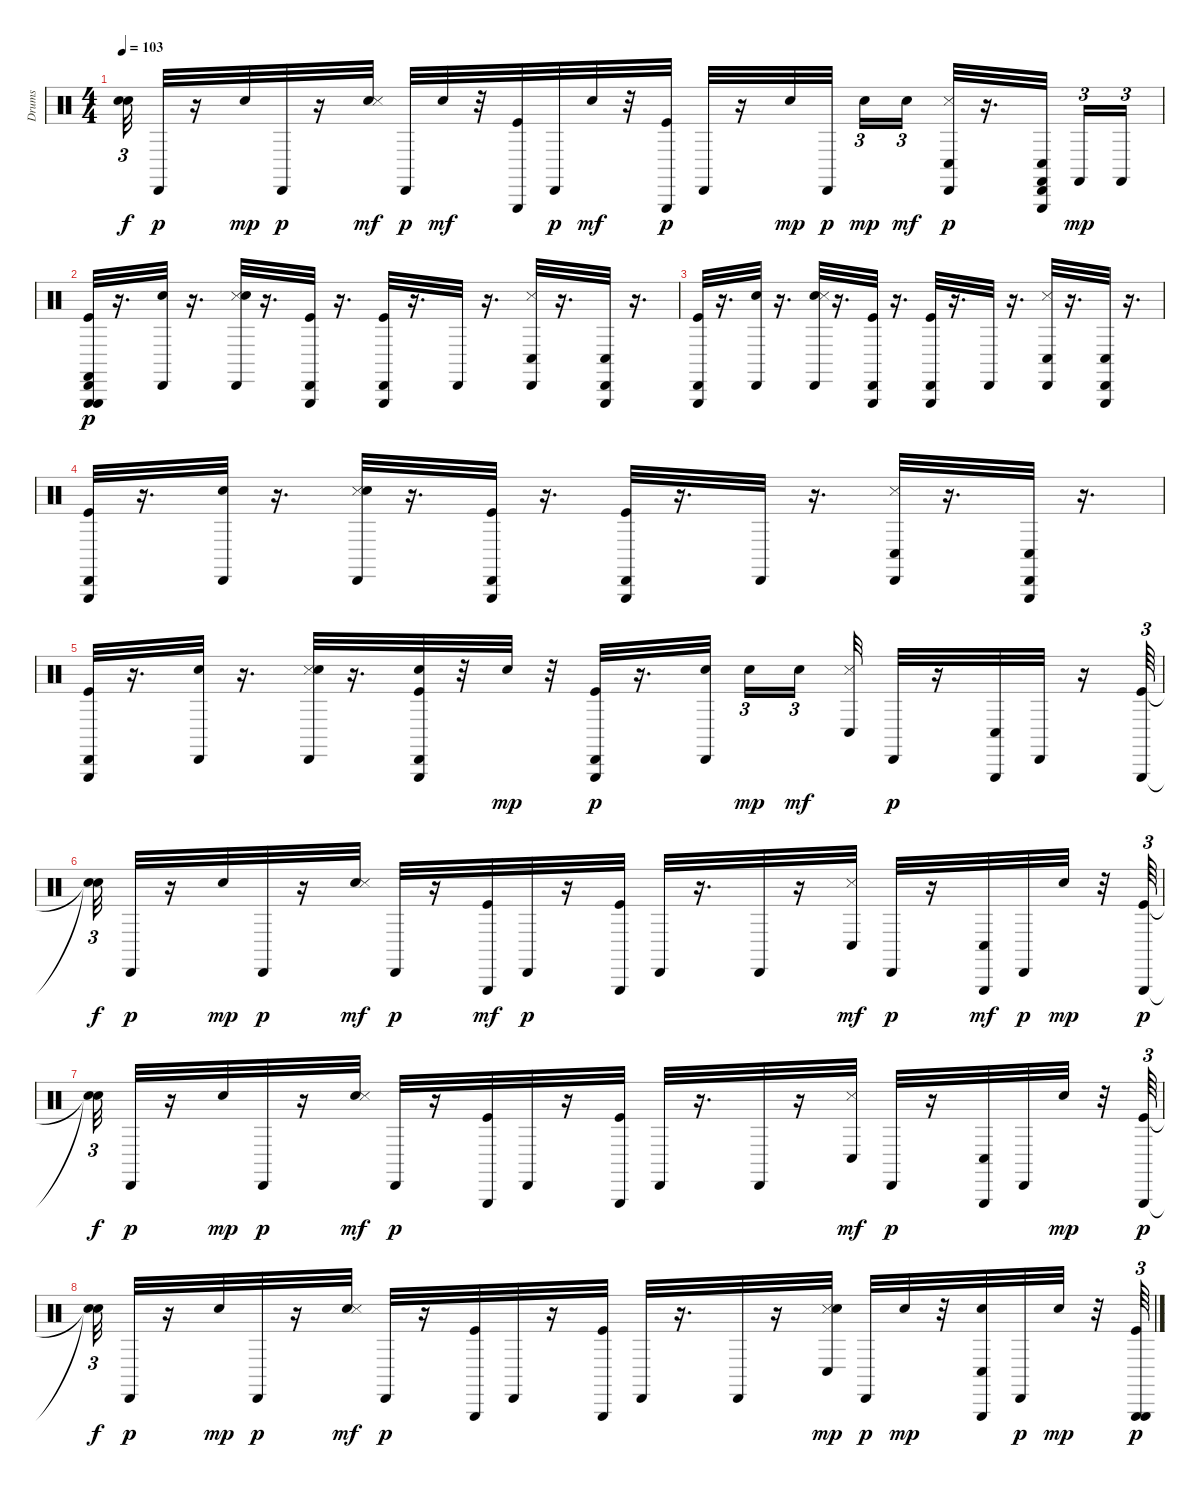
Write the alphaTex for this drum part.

\track ("Drums" "Drums") {instrument percussion}
\staff {score}
\articulation defaults
\ts (4 4)
\tempo 103
\clef neutral
\ks c
("Snare (hit)"{t} "Snare (hit)"{t}).32{tu (3 2) dy f} "Cabasa (hit)".32{dy p} r.16 "Snare (hit) 2".32{dy mp} "Cabasa (hit)".32{dy p} r.16 ("Snare (hit) 2" "Snare (side stick) 3").32{dy mf} "Cabasa (hit)".32{dy p} "Snare (hit) 2".32{dy mf} r.32 ("Triangle (hit)" "Kick (hit)").32 "Cabasa (hit)".32{dy p} "Snare (hit) 2".32{dy mf} r.32 ("Kick (hit)" "Triangle (hit)").32{dy p} "Cabasa (hit)".32 r.16 "Snare (hit) 2".32{dy mp} "Cabasa (hit)".32{dy p} "Snare (hit) 2".16{tu (3 2) dy mp} "Snare (hit) 2".16{tu (3 2) dy mf} ("Snare (side stick) 3" "Conga low (hit)" "Cabasa (hit)").32{dy p} r.16{d} ("Triangle (hit)" "Conga low (hit)" "Castanets (hit)" "Cabasa (hit)").32 "Castanets (hit)".16{tu (3 2) dy mp} "Castanets (hit)".16{tu (3 2)} |
("Triangle (hit)" "Castanets (hit)" "Triangle (hit)" "Kick (hit)" "Cabasa (hit)").32{dy p} r.16{d} ("Snare (hit) 2" "Cabasa (hit)").32 r.16{d} ("Snare (side stick) 3" "Snare (hit) 2" "Cabasa (hit)").32 r.16{d} ("Kick (hit)" "Triangle (hit)" "Cabasa (hit)").32 r.16{d} ("Triangle (hit)" "Kick (hit)" "Cabasa (hit)").32 r.16{d} "Cabasa (hit)".32 r.16{d} ("Conga low (hit)" "Snare (side stick) 3" "Cabasa (hit)").32 r.16{d} ("Triangle (hit)" "Conga low (hit)" "Cabasa (hit)").32 r.16{d} |
("Kick (hit)" "Triangle (hit)" "Cabasa (hit)").32 r.16{d} ("Snare (hit) 2" "Cabasa (hit)").32 r.16{d} ("Snare (hit) 2" "Snare (side stick) 3" "Cabasa (hit)").32 r.16{d} ("Kick (hit)" "Triangle (hit)" "Cabasa (hit)").32 r.16{d} ("Triangle (hit)" "Kick (hit)" "Cabasa (hit)").32 r.16{d} "Cabasa (hit)".32 r.16{d} ("Snare (side stick) 3" "Conga low (hit)" "Cabasa (hit)").32 r.16{d} ("Triangle (hit)" "Conga low (hit)" "Cabasa (hit)").32 r.16{d} |
("Kick (hit)" "Triangle (hit)" "Cabasa (hit)").32 r.16{d} ("Snare (hit) 2" "Cabasa (hit)").32 r.16{d} ("Snare (side stick) 3" "Snare (hit) 2" "Cabasa (hit)").32 r.16{d} ("Triangle (hit)" "Kick (hit)" "Cabasa (hit)").32 r.16{d} ("Kick (hit)" "Triangle (hit)" "Cabasa (hit)").32 r.16{d} "Cabasa (hit)".32 r.16{d} ("Conga low (hit)" "Snare (side stick) 3" "Cabasa (hit)").32 r.16{d} ("Triangle (hit)" "Conga low (hit)" "Cabasa (hit)").32 r.16{d} |
("Triangle (hit)" "Kick (hit)" "Cabasa (hit)").32 r.16{d} ("Snare (hit) 2" "Cabasa (hit)").32 r.16{d} ("Snare (side stick) 3" "Snare (hit) 2" "Cabasa (hit)").32 r.16{d} ("Kick (hit)" "Triangle (hit)" "Snare (hit) 2" "Cabasa (hit)").32 r.32 "Snare (hit) 2".32{dy mp} r.32 ("Kick (hit)" "Triangle (hit)" "Cabasa (hit)").32{dy p} r.16{d} ("Snare (hit) 2" "Cabasa (hit)").32 "Snare (hit) 2".16{tu (3 2) dy mp} "Snare (hit) 2".16{tu (3 2) dy mf} ("Snare (side stick) 3" "Conga low (hit)").32 "Cabasa (hit)".32{dy p} r.16 ("Conga low (hit)" "Triangle (hit)").32 "Cabasa (hit)".32 r.16 ("Triangle (hit)" "Kick (hit)").64{tu (3 2)} |
("Snare (hit)"{t} "Snare (hit)"{t}).32{tu (3 2) dy f} "Cabasa (hit)".32{dy p} r.16 "Snare (hit) 2".32{dy mp} "Cabasa (hit)".32{dy p} r.16 ("Snare (hit) 2" "Snare (side stick) 3").32{dy mf} "Cabasa (hit)".32{dy p} r.16 ("Triangle (hit)" "Kick (hit)").32{dy mf} "Cabasa (hit)".32{dy p} r.16 ("Kick (hit)" "Triangle (hit)").32 "Cabasa (hit)".32 r.16{d} "Cabasa (hit)".32 r.16 ("Conga low (hit)" "Snare (side stick) 3").32{dy mf} "Cabasa (hit)".32{dy p} r.16 ("Triangle (hit)" "Conga low (hit)").32{dy mf} "Cabasa (hit)".32{dy p} "Snare (hit) 2".32{dy mp} r.32 ("Kick (hit)" "Triangle (hit)").64{tu (3 2) dy p} |
("Snare (hit)"{t} "Snare (hit)"{t}).32{tu (3 2) dy f} "Cabasa (hit)".32{dy p} r.16 "Snare (hit) 2".32{dy mp} "Cabasa (hit)".32{dy p} r.16 ("Snare (hit) 2" "Snare (side stick) 3").32{dy mf} "Cabasa (hit)".32{dy p} r.16 ("Kick (hit)" "Triangle (hit)").32 "Cabasa (hit)".32 r.16 ("Kick (hit)" "Triangle (hit)").32 "Cabasa (hit)".32 r.16{d} "Cabasa (hit)".32 r.16 ("Conga low (hit)" "Snare (side stick) 3").32{dy mf} "Cabasa (hit)".32{dy p} r.16 ("Conga low (hit)" "Triangle (hit)").32 "Cabasa (hit)".32 "Snare (hit) 2".32{dy mp} r.32 ("Triangle (hit)" "Kick (hit)").64{tu (3 2) dy p} |
("Snare (hit)"{t} "Snare (hit)"{t}).32{tu (3 2) dy f} "Cabasa (hit)".32{dy p} r.16 "Snare (hit) 2".32{dy mp} "Cabasa (hit)".32{dy p} r.16 ("Snare (hit) 2" "Snare (side stick) 3").32{dy mf} "Cabasa (hit)".32{dy p} r.16 ("Kick (hit)" "Triangle (hit)").32 "Cabasa (hit)".32 r.16 ("Triangle (hit)" "Kick (hit)").32 "Cabasa (hit)".32 r.16{d} "Cabasa (hit)".32 r.16 ("Conga low (hit)" "Snare (side stick) 3" "Snare (hit) 2").32{dy mp} "Cabasa (hit)".32{dy p} "Snare (hit) 2".32{dy mp} r.32 ("Triangle (hit)" "Conga low (hit)" "Snare (hit) 2").32 "Cabasa (hit)".32{dy p} "Snare (hit) 2".32{dy mp} r.32 ("Kick (hit)" "Triangle (hit)" "Triangle (hit)").64{tu (3 2) dy p}
